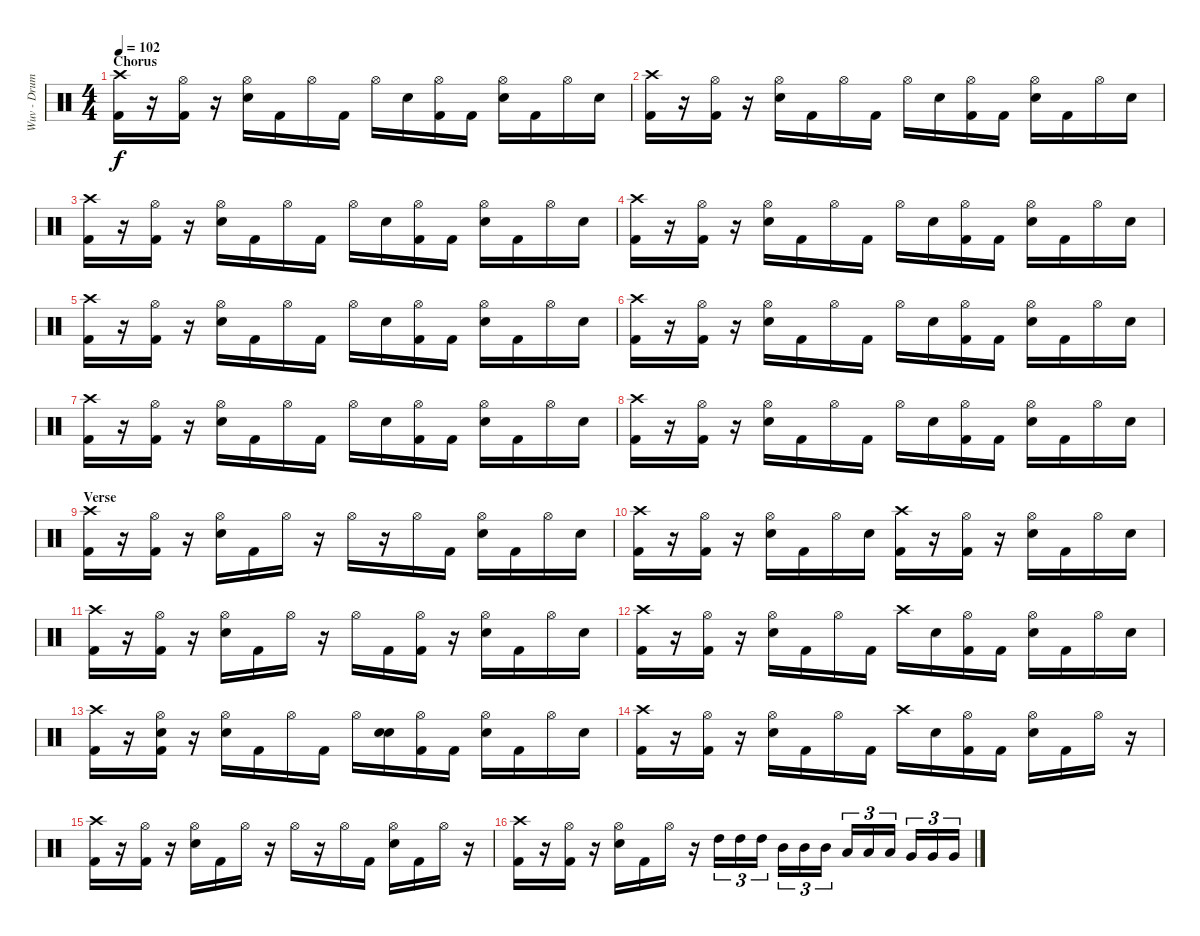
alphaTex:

\track ("Wuv - Drums" "Wuv - Drum") {instrument percussion}
\staff {score}
\articulation defaults
\ts (4 4)
\section ("" "Chorus")
\tempo 102
\clef neutral
\ks c
("Crash high (hit)" "Kick (hit) 2").16{dy f} r.16 ("Hi-Hat (open)" "Kick (hit) 2").16 r.16 ("Hi-Hat (open)" "Snare (hit) 2").16 "Kick (hit) 2".16 "Hi-Hat (open)".16 "Kick (hit) 2".16 "Hi-Hat (open)".16 "Snare (hit) 2".16 ("Hi-Hat (open)" "Kick (hit) 2").16 "Kick (hit) 2".16 ("Hi-Hat (open)" "Snare (hit) 2").16 "Kick (hit) 2".16 "Hi-Hat (open)".16 "Snare (hit) 2".16 |
("Crash high (hit)" "Kick (hit) 2").16 r.16 ("Hi-Hat (open)" "Kick (hit) 2").16 r.16 ("Hi-Hat (open)" "Snare (hit) 2").16 "Kick (hit) 2".16 "Hi-Hat (open)".16 "Kick (hit) 2".16 "Hi-Hat (open)".16 "Snare (hit) 2".16 ("Hi-Hat (open)" "Kick (hit) 2").16 "Kick (hit) 2".16 ("Hi-Hat (open)" "Snare (hit) 2").16 "Kick (hit) 2".16 "Hi-Hat (open)".16 "Snare (hit) 2".16 |
("Crash high (hit)" "Kick (hit) 2").16 r.16 ("Hi-Hat (open)" "Kick (hit) 2").16 r.16 ("Hi-Hat (open)" "Snare (hit) 2").16 "Kick (hit) 2".16 "Hi-Hat (open)".16 "Kick (hit) 2".16 "Hi-Hat (open)".16 "Snare (hit) 2".16 ("Hi-Hat (open)" "Kick (hit) 2").16 "Kick (hit) 2".16 ("Hi-Hat (open)" "Snare (hit) 2").16 "Kick (hit) 2".16 "Hi-Hat (open)".16 "Snare (hit) 2".16 |
("Crash high (hit)" "Kick (hit) 2").16 r.16 ("Hi-Hat (open)" "Kick (hit) 2").16 r.16 ("Hi-Hat (open)" "Snare (hit) 2").16 "Kick (hit) 2".16 "Hi-Hat (open)".16 "Kick (hit) 2".16 "Hi-Hat (open)".16 "Snare (hit) 2".16 ("Hi-Hat (open)" "Kick (hit) 2").16 "Kick (hit) 2".16 ("Hi-Hat (open)" "Snare (hit) 2").16 "Kick (hit) 2".16 "Hi-Hat (open)".16 "Snare (hit) 2".16 |
("Crash high (hit)" "Kick (hit) 2").16 r.16 ("Hi-Hat (open)" "Kick (hit) 2").16 r.16 ("Hi-Hat (open)" "Snare (hit) 2").16 "Kick (hit) 2".16 "Hi-Hat (open)".16 "Kick (hit) 2".16 "Hi-Hat (open)".16 "Snare (hit) 2".16 ("Hi-Hat (open)" "Kick (hit) 2").16 "Kick (hit) 2".16 ("Hi-Hat (open)" "Snare (hit) 2").16 "Kick (hit) 2".16 "Hi-Hat (open)".16 "Snare (hit) 2".16 |
("Crash high (hit)" "Kick (hit) 2").16 r.16 ("Hi-Hat (open)" "Kick (hit) 2").16 r.16 ("Hi-Hat (open)" "Snare (hit) 2").16 "Kick (hit) 2".16 "Hi-Hat (open)".16 "Kick (hit) 2".16 "Hi-Hat (open)".16 "Snare (hit) 2".16 ("Hi-Hat (open)" "Kick (hit) 2").16 "Kick (hit) 2".16 ("Hi-Hat (open)" "Snare (hit) 2").16 "Kick (hit) 2".16 "Hi-Hat (open)".16 "Snare (hit) 2".16 |
("Crash high (hit)" "Kick (hit) 2").16 r.16 ("Hi-Hat (open)" "Kick (hit) 2").16 r.16 ("Hi-Hat (open)" "Snare (hit) 2").16 "Kick (hit) 2".16 "Hi-Hat (open)".16 "Kick (hit) 2".16 "Hi-Hat (open)".16 "Snare (hit) 2".16 ("Hi-Hat (open)" "Kick (hit) 2").16 "Kick (hit) 2".16 ("Hi-Hat (open)" "Snare (hit) 2").16 "Kick (hit) 2".16 "Hi-Hat (open)".16 "Snare (hit) 2".16 |
("Crash high (hit)" "Kick (hit) 2").16 r.16 ("Hi-Hat (open)" "Kick (hit) 2").16 r.16 ("Hi-Hat (open)" "Snare (hit) 2").16 "Kick (hit) 2".16 "Hi-Hat (open)".16 "Kick (hit) 2".16 "Hi-Hat (open)".16 "Snare (hit) 2".16 ("Hi-Hat (open)" "Kick (hit) 2").16 "Kick (hit) 2".16 ("Hi-Hat (open)" "Snare (hit) 2").16 "Kick (hit) 2".16 "Hi-Hat (open)".16 "Snare (hit) 2".16 |
\section ("" "Verse")
("Crash high (hit)" "Kick (hit) 2").16 r.16 ("Hi-Hat (open)" "Kick (hit) 2").16 r.16 ("Hi-Hat (open)" "Snare (hit) 2").16 "Kick (hit) 2".16 "Hi-Hat (open)".16 r.16 "Hi-Hat (open)".16 r.16 "Hi-Hat (open)".16 "Kick (hit) 2".16 ("Hi-Hat (open)" "Snare (hit) 2").16 "Kick (hit) 2".16 "Hi-Hat (open)".16 "Snare (hit) 2".16 |
("Crash high (hit)" "Kick (hit) 2").16 r.16 ("Hi-Hat (open)" "Kick (hit) 2").16 r.16 ("Hi-Hat (open)" "Snare (hit) 2").16 "Kick (hit) 2".16 "Hi-Hat (open)".16 "Snare (hit) 2".16 ("Crash high (hit)" "Kick (hit) 2").16 r.16 ("Hi-Hat (open)" "Kick (hit) 2").16 r.16 ("Hi-Hat (open)" "Snare (hit) 2").16 "Kick (hit) 2".16 "Hi-Hat (open)".16 "Snare (hit) 2".16 |
("Crash high (hit)" "Kick (hit) 2").16 r.16 ("Hi-Hat (open)" "Kick (hit) 2").16 r.16 ("Hi-Hat (open)" "Snare (hit) 2").16 "Kick (hit) 2".16 "Hi-Hat (open)".16 r.16 "Hi-Hat (open)".16 "Kick (hit) 2".16 ("Hi-Hat (open)" "Kick (hit) 2").16 r.16 ("Hi-Hat (open)" "Snare (hit) 2").16 "Kick (hit) 2".16 "Hi-Hat (open)".16 "Snare (hit) 2".16 |
("Crash high (hit)" "Kick (hit) 2").16 r.16 ("Hi-Hat (open)" "Kick (hit) 2").16 r.16 ("Hi-Hat (open)" "Snare (hit) 2").16 "Kick (hit) 2".16 "Hi-Hat (open)".16 "Kick (hit) 2".16 "Crash high (hit)".16 "Snare (hit) 2".16 ("Hi-Hat (open)" "Kick (hit) 2").16 "Kick (hit) 2".16 ("Hi-Hat (open)" "Snare (hit) 2").16 "Kick (hit) 2".16 "Hi-Hat (open)".16 "Snare (hit) 2".16 |
("Crash high (hit)" "Kick (hit) 2").16 r.16 ("Hi-Hat (open)" "Snare (hit) 2" "Kick (hit) 2").16 r.16 ("Hi-Hat (open)" "Snare (hit) 2").16 "Kick (hit) 2".16 "Hi-Hat (open)".16 "Kick (hit) 2".16 "Hi-Hat (open)".16 ("Electric Snare (hit)" "Snare (hit) 2").16 ("Hi-Hat (open)" "Kick (hit) 2").16 "Kick (hit) 2".16 ("Hi-Hat (open)" "Snare (hit) 2").16 "Kick (hit) 2".16 "Hi-Hat (open)".16 "Snare (hit) 2".16 |
("Crash high (hit)" "Kick (hit) 2").16 r.16 ("Hi-Hat (open)" "Kick (hit) 2").16 r.16 ("Hi-Hat (open)" "Snare (hit) 2").16 "Kick (hit) 2".16 "Hi-Hat (open)".16 "Kick (hit) 2".16 "Crash high (hit)".16 "Snare (hit) 2".16 ("Hi-Hat (open)" "Kick (hit) 2").16 "Kick (hit) 2".16 ("Hi-Hat (open)" "Snare (hit) 2").16 "Kick (hit) 2".16 "Hi-Hat (open)".16 r.16 |
("Crash high (hit)" "Kick (hit) 2").16 r.16 ("Hi-Hat (open)" "Kick (hit) 2").16 r.16 ("Hi-Hat (open)" "Snare (hit) 2").16 "Kick (hit) 2".16 "Hi-Hat (open)".16 r.16 "Hi-Hat (open)".16 r.16 "Hi-Hat (open)".16 "Kick (hit) 2".16 ("Hi-Hat (open)" "Snare (hit) 2").16 "Kick (hit) 2".16 "Hi-Hat (open)".16 r.16 |
("Crash high (hit)" "Kick (hit) 2").16 r.16 ("Hi-Hat (open)" "Kick (hit) 2").16 r.16 ("Hi-Hat (open)" "Snare (hit) 2").16 "Kick (hit) 2".16 "Hi-Hat (open)".16 r.16 "High Tom (hit)".16{tu (3 2)} "High Tom (hit)".16{tu (3 2)} "High Tom (hit)".16{tu (3 2)} "Mid Tom (hit)".16{tu (3 2)} "Mid Tom (hit)".16{tu (3 2)} "Mid Tom (hit)".16{tu (3 2)} "Low Tom (hit)".16{tu (3 2)} "Low Tom (hit)".16{tu (3 2)} "Low Tom (hit)".16{tu (3 2)} "Very Low Tom (hit)".16{tu (3 2)} "Very Low Tom (hit)".16{tu (3 2)} "Very Low Tom (hit)".16{tu (3 2)}
